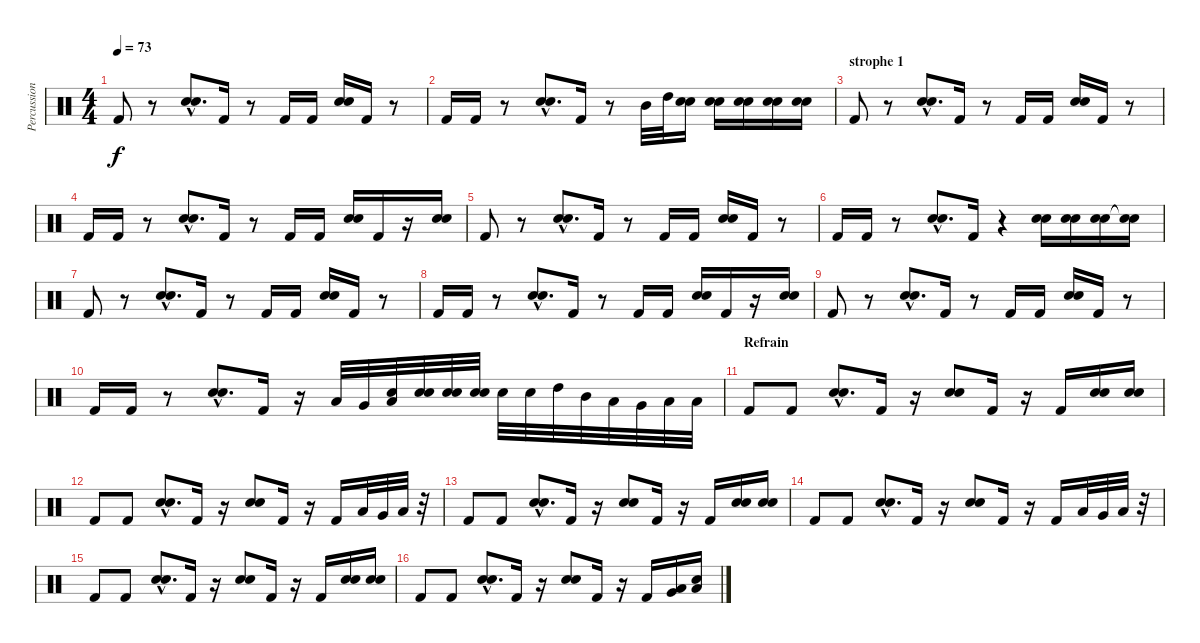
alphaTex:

\track ("Percussions" "Percussion") {instrument percussion}
\staff {score}
\articulation defaults
\ts (4 4)
\tempo 73
\clef neutral
\ks c "Kick (hit) 2".8{dy f}
r.8 ("Electric Snare (hit)"{hac} "Snare (hit) 2"{hac}).8{d} "Kick (hit) 2".16 r.8 "Kick (hit) 2".16 "Kick (hit) 2".16 ("Electric Snare (hit)" "Snare (hit) 2").16 "Kick (hit) 2".16 r.8 |
"Kick (hit) 2".16 "Kick (hit) 2".16 r.8 ("Electric Snare (hit)"{hac} "Snare (hit) 2"{hac}).8{d} "Kick (hit) 2".16 r.8 "Mid Tom (hit)".32 "High Tom (hit)".32 ("Electric Snare (hit)" "Snare (hit) 2").16 ("Electric Snare (hit)" "Snare (hit) 2").16 ("Electric Snare (hit)" "Snare (hit) 2").16 ("Electric Snare (hit)" "Snare (hit) 2").16 ("Electric Snare (hit)" "Snare (hit) 2").16 |
\section ("" "strophe 1")
"Kick (hit) 2".8 r.8 ("Electric Snare (hit)"{hac} "Snare (hit) 2"{hac}).8{d} "Kick (hit) 2".16 r.8 "Kick (hit) 2".16 "Kick (hit) 2".16 ("Electric Snare (hit)" "Snare (hit) 2").16 "Kick (hit) 2".16 r.8 |
"Kick (hit) 2".16 "Kick (hit) 2".16 r.8 ("Electric Snare (hit)"{hac} "Snare (hit) 2"{hac}).8{d} "Kick (hit) 2".16 r.8 "Kick (hit) 2".16 "Kick (hit) 2".16 ("Electric Snare (hit)" "Snare (hit) 2").16 "Kick (hit) 2".16 r.16 ("Electric Snare (hit)" "Snare (hit) 2").16 |
"Kick (hit) 2".8 r.8 ("Electric Snare (hit)"{hac} "Snare (hit) 2"{hac}).8{d} "Kick (hit) 2".16 r.8 "Kick (hit) 2".16 "Kick (hit) 2".16 ("Electric Snare (hit)" "Snare (hit) 2").16 "Kick (hit) 2".16 r.8 |
"Kick (hit) 2".16 "Kick (hit) 2".16 r.8 ("Electric Snare (hit)"{hac} "Snare (hit) 2"{hac}).8{d} "Kick (hit) 2".16 r.4 ("Electric Snare (hit)" "Snare (hit) 2").16 ("Electric Snare (hit)" "Snare (hit) 2").16 ("Electric Snare (hit)" "Snare (hit) 2").16 ("Snare (hit)"{t} "Snare (hit)"{t}).16 |
"Kick (hit) 2".8 r.8 ("Electric Snare (hit)"{hac} "Snare (hit) 2"{hac}).8{d} "Kick (hit) 2".16 r.8 "Kick (hit) 2".16 "Kick (hit) 2".16 ("Electric Snare (hit)" "Snare (hit) 2").16 "Kick (hit) 2".16 r.8 |
"Kick (hit) 2".16 "Kick (hit) 2".16 r.8 ("Electric Snare (hit)"{hac} "Snare (hit) 2"{hac}).8{d} "Kick (hit) 2".16 r.8 "Kick (hit) 2".16 "Kick (hit) 2".16 ("Electric Snare (hit)" "Snare (hit) 2").16 "Kick (hit) 2".16 r.16 ("Electric Snare (hit)" "Snare (hit) 2").16 |
"Kick (hit) 2".8 r.8 ("Electric Snare (hit)"{hac} "Snare (hit) 2"{hac}).8{d} "Kick (hit) 2".16 r.8 "Kick (hit) 2".16 "Kick (hit) 2".16 ("Electric Snare (hit)" "Snare (hit) 2").16 "Kick (hit) 2".16 r.8 |
"Kick (hit) 2".16 "Kick (hit) 2".16 r.8 ("Electric Snare (hit)"{hac} "Snare (hit) 2"{hac}).8{d} "Kick (hit) 2".16 r.16 "Low Floor Tom (hit)".32 "Very Low Tom (hit)".32 ("Low Tom (hit)" "Snare (hit) 2").32 ("Electric Snare (hit)" "Snare (hit) 2").32 ("Electric Snare (hit)" "Snare (hit) 2").32 ("Electric Snare (hit)" "Snare (hit) 2").32 "Snare (hit) 2".32 "Snare (hit) 2".32 "High Tom (hit)".32 "Mid Tom (hit)".32 "Low Tom (hit)".32 "Very Low Tom (hit)".32 "Low Floor Tom (hit)".32 "Low Floor Tom (hit)".32 |
\section ("" "Refrain")
"Kick (hit) 2".8 "Kick (hit) 2".8 ("Electric Snare (hit)"{hac} "Snare (hit) 2"{hac}).8{d} "Kick (hit) 2".16 r.16 ("Electric Snare (hit)" "Snare (hit) 2").8 "Kick (hit) 2".16 r.16 "Kick (hit) 2".16 ("Electric Snare (hit)" "Snare (hit) 2").16 ("Electric Snare (hit)" "Snare (hit) 2").16 |
"Kick (hit) 2".8 "Kick (hit) 2".8 ("Electric Snare (hit)"{hac} "Snare (hit) 2"{hac}).8{d} "Kick (hit) 2".16 r.16 ("Electric Snare (hit)" "Snare (hit) 2").8 "Kick (hit) 2".16 r.16 "Kick (hit) 2".16 "Low Tom (hit)".32 "Very Low Tom (hit)".32 "Low Floor Tom (hit)".32 r.32 |
"Kick (hit) 2".8 "Kick (hit) 2".8 ("Electric Snare (hit)"{hac} "Snare (hit) 2"{hac}).8{d} "Kick (hit) 2".16 r.16 ("Electric Snare (hit)" "Snare (hit) 2").8 "Kick (hit) 2".16 r.16 "Kick (hit) 2".16 ("Electric Snare (hit)" "Snare (hit) 2").16 ("Electric Snare (hit)" "Snare (hit) 2").16 |
"Kick (hit) 2".8 "Kick (hit) 2".8 ("Electric Snare (hit)"{hac} "Snare (hit) 2"{hac}).8{d} "Kick (hit) 2".16 r.16 ("Electric Snare (hit)" "Snare (hit) 2").8 "Kick (hit) 2".16 r.16 "Kick (hit) 2".16 "Low Tom (hit)".32 "Very Low Tom (hit)".32 "Low Floor Tom (hit)".32 r.32 |
"Kick (hit) 2".8 "Kick (hit) 2".8 ("Electric Snare (hit)"{hac} "Snare (hit) 2"{hac}).8{d} "Kick (hit) 2".16 r.16 ("Electric Snare (hit)" "Snare (hit) 2").8 "Kick (hit) 2".16 r.16 "Kick (hit) 2".16 ("Electric Snare (hit)" "Snare (hit) 2").16 ("Electric Snare (hit)" "Snare (hit) 2").16 |
"Kick (hit) 2".8 "Kick (hit) 2".8 ("Electric Snare (hit)"{hac} "Snare (hit) 2"{hac}).8{d} "Kick (hit) 2".16 r.16 ("Electric Snare (hit)" "Snare (hit) 2").8 "Kick (hit) 2".16 r.16 "Kick (hit) 2".16 ("Very Low Tom (hit)" "Low Floor Tom (hit)").16 ("Electric Snare (hit)" "Low Tom (hit)").16
